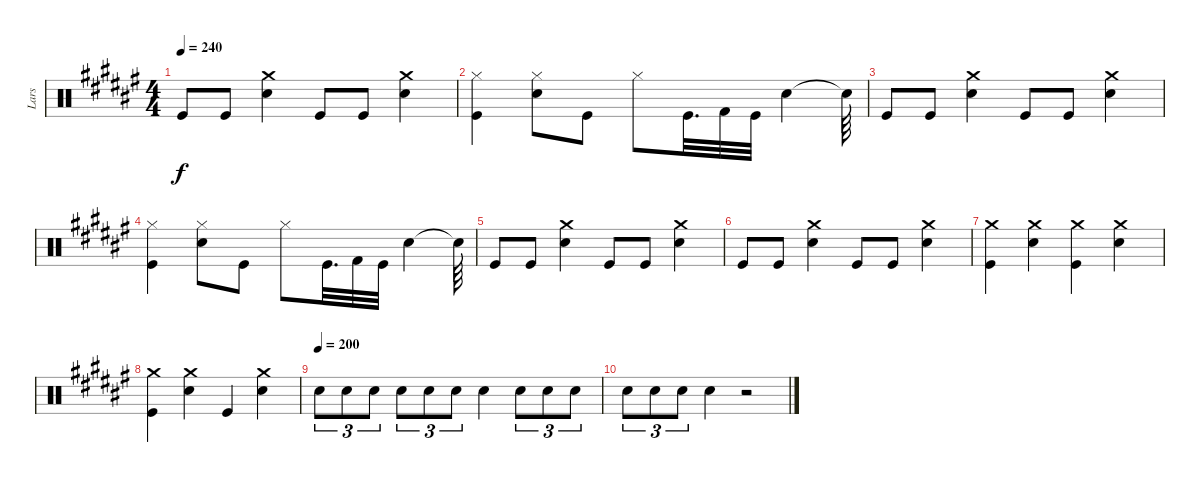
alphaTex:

\track ("Lars" "Lars") {instrument percussion}
\staff {score}
\articulation defaults
\ts (4 4)
\tempo 240
\clef neutral
\ks f# "Kick (hit)".8{dy f} "Kick (hit)".8
("Snare (hit) 2" "Crash medium (hit)").4 "Kick (hit)".8 "Kick (hit)".8 ("Snare (hit) 2" "Crash medium (hit)").4 |
("Kick (hit)" "Hi-Hat (closed)").4 ("Snare (hit) 2" "Hi-Hat (closed)").8 "Kick (hit)".8 "Hi-Hat (closed)".8 "Kick (hit)".32{d} "Kick (hit) 2".32 "Kick (hit)".32 "Snare (hit) 2".4 "Snare (hit)"{t}.64 |
"Kick (hit)".8 "Kick (hit)".8 ("Snare (hit) 2" "Crash medium (hit)").4 "Kick (hit)".8 "Kick (hit)".8 ("Snare (hit) 2" "Crash medium (hit)").4 |
("Kick (hit)" "Hi-Hat (closed)").4 ("Snare (hit) 2" "Hi-Hat (closed)").8 "Kick (hit)".8 "Hi-Hat (closed)".8 "Kick (hit)".32{d} "Kick (hit) 2".32 "Kick (hit)".32 "Snare (hit) 2".4 "Snare (hit)"{t}.64 |
"Kick (hit)".8 "Kick (hit)".8 ("Snare (hit) 2" "Crash medium (hit)").4 "Kick (hit)".8 "Kick (hit)".8 ("Snare (hit) 2" "Crash medium (hit)").4 |
"Kick (hit)".8 "Kick (hit)".8 ("Snare (hit) 2" "Crash medium (hit)").4 "Kick (hit)".8 "Kick (hit)".8 ("Snare (hit) 2" "Crash medium (hit)").4 |
("Crash medium (hit)" "Kick (hit)").4 ("Crash medium (hit)" "Snare (hit) 2").4 ("Crash medium (hit)" "Kick (hit)").4 ("Crash medium (hit)" "Snare (hit) 2").4 |
("Kick (hit)" "Crash medium (hit)").4 ("Snare (hit) 2" "Crash medium (hit)").4 "Kick (hit)".4 ("Snare (hit) 2" "Crash medium (hit)").4 |
\tempo (200)
"Snare (hit) 2".8{tu (3 2)} "Snare (hit) 2".8{tu (3 2)} "Snare (hit) 2".8{tu (3 2)} "Snare (hit) 2".8{tu (3 2)} "Snare (hit) 2".8{tu (3 2)} "Snare (hit) 2".8{tu (3 2)} "Snare (hit) 2".4 "Snare (hit) 2".8{tu (3 2)} "Snare (hit) 2".8{tu (3 2)} "Snare (hit) 2".8{tu (3 2)} |
"Snare (hit) 2".8{tu (3 2)} "Snare (hit) 2".8{tu (3 2)} "Snare (hit) 2".8{tu (3 2)} "Snare (hit) 2".4 r.2
